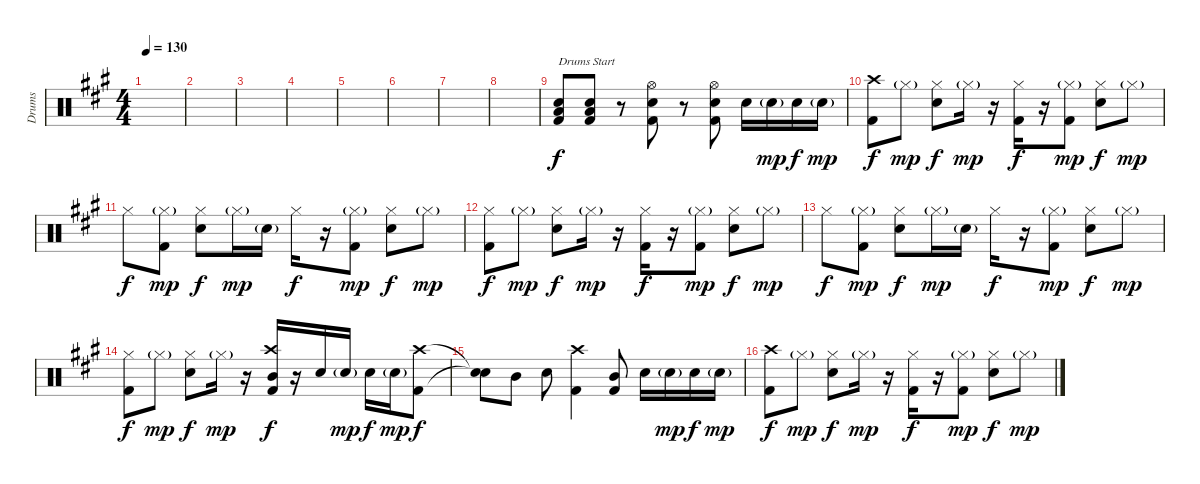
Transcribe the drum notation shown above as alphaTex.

\track ("Drums" "Drums") {instrument percussion}
\staff {score}
\articulation defaults
\ts (4 4)
\tempo 130
\clef neutral
\ks a
|
|
|
|
|
|
|
|
("Electric Snare (hit)" "Low Floor Tom (hit)" "Kick (hit) 2").8{txt "Drums Start"} ("Electric Snare (hit)" "Low Floor Tom (hit)" "Kick (hit) 2").8 r.8 ("Hi-Hat (open)" "Electric Snare (hit)" "Kick (hit) 2").8 r.8 ("Hi-Hat (open)" "Electric Snare (hit)" "Kick (hit) 2").8 "Electric Snare (hit)".16 "Electric Snare (hit)"{g}.16{dy mp} "Electric Snare (hit)".16{dy f} "Electric Snare (hit)"{g}.16{dy mp} |
("Crash high (hit)" "Kick (hit) 2").8{dy f} "Hi-Hat (closed)"{g}.8{dy mp} ("Hi-Hat (closed)" "Electric Snare (hit)").8{dy f} "Hi-Hat (closed)"{g}.16{dy mp} r.16 ("Hi-Hat (closed)" "Kick (hit) 2").16{dy f} r.16 ("Hi-Hat (closed)"{g} "Kick (hit) 2").8{dy mp} ("Hi-Hat (closed)" "Electric Snare (hit)").8{dy f} "Hi-Hat (closed)"{g}.8{dy mp} |
"Hi-Hat (closed)".8{dy f} ("Hi-Hat (closed)"{g} "Kick (hit) 2").8{dy mp} ("Hi-Hat (closed)" "Electric Snare (hit)").8{dy f} "Hi-Hat (closed)"{g}.16{dy mp} "Electric Snare (hit)"{g}.16 "Hi-Hat (closed)".16{dy f} r.16 ("Hi-Hat (closed)"{g} "Kick (hit) 2").8{dy mp} ("Hi-Hat (closed)" "Electric Snare (hit)").8{dy f} "Hi-Hat (closed)"{g}.8{dy mp} |
("Hi-Hat (closed)" "Kick (hit) 2").8{dy f} "Hi-Hat (closed)"{g}.8{dy mp} ("Hi-Hat (closed)" "Electric Snare (hit)").8{dy f} "Hi-Hat (closed)"{g}.16{dy mp} r.16 ("Hi-Hat (closed)" "Kick (hit) 2").16{dy f} r.16 ("Hi-Hat (closed)"{g} "Kick (hit) 2").8{dy mp} ("Hi-Hat (closed)" "Electric Snare (hit)").8{dy f} "Hi-Hat (closed)"{g}.8{dy mp} |
"Hi-Hat (closed)".8{dy f} ("Hi-Hat (closed)"{g} "Kick (hit) 2").8{dy mp} ("Hi-Hat (closed)" "Electric Snare (hit)").8{dy f} "Hi-Hat (closed)"{g}.16{dy mp} "Electric Snare (hit)"{g}.16 "Hi-Hat (closed)".16{dy f} r.16 ("Hi-Hat (closed)"{g} "Kick (hit) 2").8{dy mp} ("Hi-Hat (closed)" "Electric Snare (hit)").8{dy f} "Hi-Hat (closed)"{g}.8{dy mp} |
("Hi-Hat (closed)" "Kick (hit) 2").8{dy f} "Hi-Hat (closed)"{g}.8{dy mp} ("Hi-Hat (closed)" "Electric Snare (hit)").8{dy f} "Hi-Hat (closed)"{g}.16{dy mp} r.16 ("Crash high (hit)" "Mid Tom (hit)" "Kick (hit) 2").16{dy f} r.16 "Electric Snare (hit)".16 "Electric Snare (hit)"{g}.16{dy mp} "Electric Snare (hit)".16{dy f} "Electric Snare (hit)"{g}.16{dy mp} ("Crash high (hit)" "Kick (hit) 2").8{dy f} |
("Snare (hit)"{t} "Snare (hit)"{t}).8 "Mid Tom (hit)".8 "Electric Snare (hit)".8 ("Crash high (hit)" "Kick (hit) 2").4 ("Mid Tom (hit)" "Kick (hit) 2").8 "Electric Snare (hit)".16 "Electric Snare (hit)"{g}.16{dy mp} "Electric Snare (hit)".16{dy f} "Electric Snare (hit)"{g}.16{dy mp} |
("Crash high (hit)" "Kick (hit) 2").8{dy f} "Hi-Hat (closed)"{g}.8{dy mp} ("Hi-Hat (closed)" "Electric Snare (hit)").8{dy f} "Hi-Hat (closed)"{g}.16{dy mp} r.16 ("Hi-Hat (closed)" "Kick (hit) 2").16{dy f} r.16 ("Hi-Hat (closed)"{g} "Kick (hit) 2").8{dy mp} ("Hi-Hat (closed)" "Electric Snare (hit)").8{dy f} "Hi-Hat (closed)"{g}.8{dy mp}
